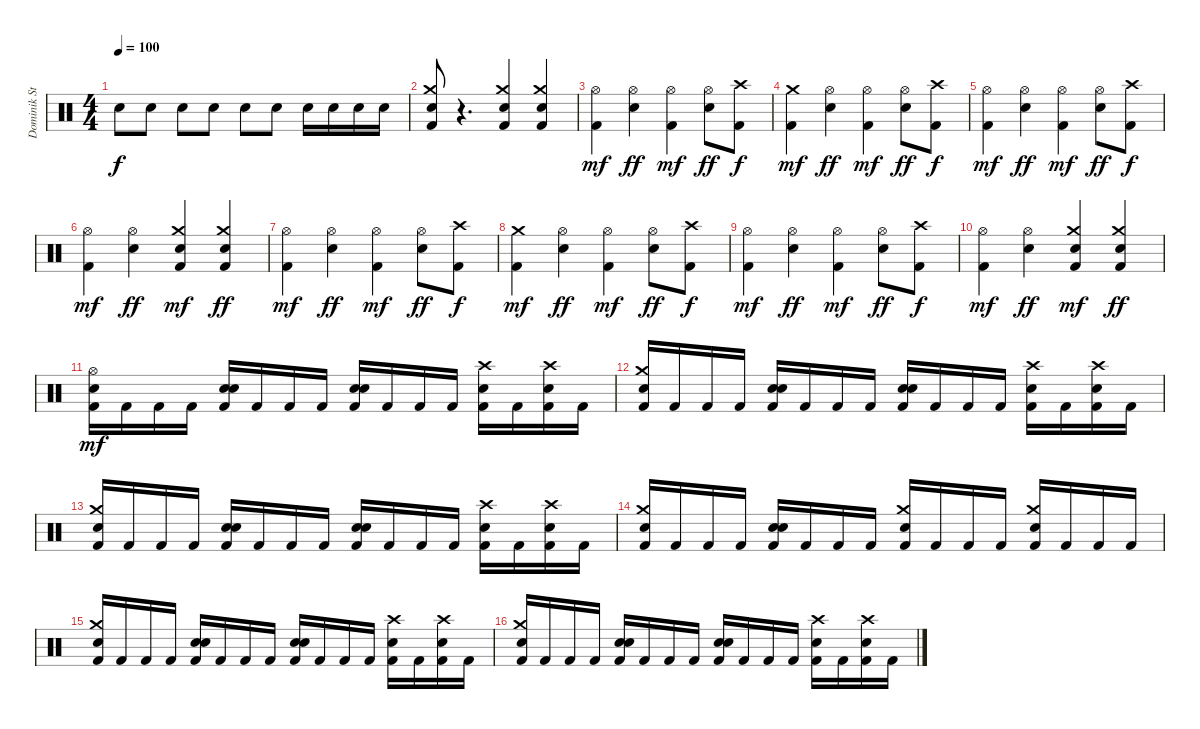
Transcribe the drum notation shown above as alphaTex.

\track ("Dominik Storch" "Dominik St") {instrument percussion}
\staff {score}
\articulation defaults
\ts (4 4)
\tempo 100
\clef neutral
\ks c "Electric Snare (hit)".8{dy f} "Electric Snare (hit)".8 "Electric Snare (hit)".8 "Electric Snare (hit)".8 "Electric Snare (hit)".8 "Electric Snare (hit)".8 "Electric Snare (hit)".16 "Electric Snare (hit)".16 "Electric Snare (hit)".16 "Electric Snare (hit)".16
|
("Crash medium (hit)" "Electric Snare (hit)" "Kick (hit) 2").8 r.4{d} ("Crash medium (hit)" "Electric Snare (hit)" "Kick (hit) 2").4 ("Crash medium (hit)" "Electric Snare (hit)" "Kick (hit) 2").4 |
("Hi-Hat (open)" "Kick (hit) 2").4{dy mf} ("Hi-Hat (open)" "Electric Snare (hit)").4{dy ff} ("Hi-Hat (open)" "Kick (hit) 2").4{dy mf} ("Hi-Hat (open)" "Electric Snare (hit)").8{dy ff} ("Crash high (hit)" "Kick (hit) 2").8{dy f} |
("Crash medium (hit)" "Kick (hit) 2").4{dy mf} ("Hi-Hat (open)" "Electric Snare (hit)").4{dy ff} ("Hi-Hat (open)" "Kick (hit) 2").4{dy mf} ("Hi-Hat (open)" "Electric Snare (hit)").8{dy ff} ("Crash high (hit)" "Kick (hit) 2").8{dy f} |
("Hi-Hat (open)" "Kick (hit) 2").4{dy mf} ("Hi-Hat (open)" "Electric Snare (hit)").4{dy ff} ("Hi-Hat (open)" "Kick (hit) 2").4{dy mf} ("Hi-Hat (open)" "Electric Snare (hit)").8{dy ff} ("Crash high (hit)" "Kick (hit) 2").8{dy f} |
("Hi-Hat (open)" "Kick (hit) 2").4{dy mf} ("Hi-Hat (open)" "Electric Snare (hit)").4{dy ff} ("Crash medium (hit)" "Electric Snare (hit)" "Kick (hit) 2").4{dy mf} ("Crash medium (hit)" "Electric Snare (hit)" "Kick (hit) 2").4{dy ff} |
("Hi-Hat (open)" "Kick (hit) 2").4{dy mf} ("Hi-Hat (open)" "Electric Snare (hit)").4{dy ff} ("Hi-Hat (open)" "Kick (hit) 2").4{dy mf} ("Hi-Hat (open)" "Electric Snare (hit)").8{dy ff} ("Crash high (hit)" "Kick (hit) 2").8{dy f} |
("Crash medium (hit)" "Kick (hit) 2").4{dy mf} ("Hi-Hat (open)" "Electric Snare (hit)").4{dy ff} ("Hi-Hat (open)" "Kick (hit) 2").4{dy mf} ("Hi-Hat (open)" "Electric Snare (hit)").8{dy ff} ("Crash high (hit)" "Kick (hit) 2").8{dy f} |
("Hi-Hat (open)" "Kick (hit) 2").4{dy mf} ("Hi-Hat (open)" "Electric Snare (hit)").4{dy ff} ("Hi-Hat (open)" "Kick (hit) 2").4{dy mf} ("Hi-Hat (open)" "Electric Snare (hit)").8{dy ff} ("Crash high (hit)" "Kick (hit) 2").8{dy f} |
("Hi-Hat (open)" "Kick (hit) 2").4{dy mf} ("Hi-Hat (open)" "Electric Snare (hit)").4{dy ff} ("Crash medium (hit)" "Electric Snare (hit)" "Kick (hit) 2").4{dy mf} ("Crash medium (hit)" "Electric Snare (hit)" "Kick (hit) 2").4{dy ff} |
("Hi-Hat (open)" "Electric Snare (hit)" "Kick (hit) 2").16{dy mf} "Kick (hit) 2".16 "Kick (hit) 2".16 "Kick (hit) 2".16 ("Electric Snare (hit)" "Electric Snare (hit)" "Kick (hit) 2").16 "Kick (hit) 2".16 "Kick (hit) 2".16 "Kick (hit) 2".16 ("Electric Snare (hit)" "Electric Snare (hit)" "Kick (hit) 2").16 "Kick (hit) 2".16 "Kick (hit) 2".16 "Kick (hit) 2".16 ("Crash high (hit)" "Electric Snare (hit)" "Kick (hit) 2").16 "Kick (hit) 2".16 ("Crash high (hit)" "Electric Snare (hit)" "Kick (hit) 2").16 "Kick (hit) 2".16 |
("Crash medium (hit)" "Electric Snare (hit)" "Kick (hit) 2").16 "Kick (hit) 2".16 "Kick (hit) 2".16 "Kick (hit) 2".16 ("Electric Snare (hit)" "Electric Snare (hit)" "Kick (hit) 2").16 "Kick (hit) 2".16 "Kick (hit) 2".16 "Kick (hit) 2".16 ("Electric Snare (hit)" "Electric Snare (hit)" "Kick (hit) 2").16 "Kick (hit) 2".16 "Kick (hit) 2".16 "Kick (hit) 2".16 ("Crash high (hit)" "Electric Snare (hit)" "Kick (hit) 2").16 "Kick (hit) 2".16 ("Crash high (hit)" "Electric Snare (hit)" "Kick (hit) 2").16 "Kick (hit) 2".16 |
("Crash medium (hit)" "Electric Snare (hit)" "Kick (hit) 2").16 "Kick (hit) 2".16 "Kick (hit) 2".16 "Kick (hit) 2".16 ("Electric Snare (hit)" "Electric Snare (hit)" "Kick (hit) 2").16 "Kick (hit) 2".16 "Kick (hit) 2".16 "Kick (hit) 2".16 ("Electric Snare (hit)" "Electric Snare (hit)" "Kick (hit) 2").16 "Kick (hit) 2".16 "Kick (hit) 2".16 "Kick (hit) 2".16 ("Crash high (hit)" "Electric Snare (hit)" "Kick (hit) 2").16 "Kick (hit) 2".16 ("Crash high (hit)" "Electric Snare (hit)" "Kick (hit) 2").16 "Kick (hit) 2".16 |
("Crash medium (hit)" "Electric Snare (hit)" "Kick (hit) 2").16 "Kick (hit) 2".16 "Kick (hit) 2".16 "Kick (hit) 2".16 ("Electric Snare (hit)" "Electric Snare (hit)" "Kick (hit) 2").16 "Kick (hit) 2".16 "Kick (hit) 2".16 "Kick (hit) 2".16 ("Crash medium (hit)" "Electric Snare (hit)" "Kick (hit) 2").16 "Kick (hit) 2".16 "Kick (hit) 2".16 "Kick (hit) 2".16 ("Crash medium (hit)" "Electric Snare (hit)" "Kick (hit) 2").16 "Kick (hit) 2".16 "Kick (hit) 2".16 "Kick (hit) 2".16 |
("Crash medium (hit)" "Electric Snare (hit)" "Kick (hit) 2").16 "Kick (hit) 2".16 "Kick (hit) 2".16 "Kick (hit) 2".16 ("Electric Snare (hit)" "Electric Snare (hit)" "Kick (hit) 2").16 "Kick (hit) 2".16 "Kick (hit) 2".16 "Kick (hit) 2".16 ("Electric Snare (hit)" "Electric Snare (hit)" "Kick (hit) 2").16 "Kick (hit) 2".16 "Kick (hit) 2".16 "Kick (hit) 2".16 ("Crash high (hit)" "Electric Snare (hit)" "Kick (hit) 2").16 "Kick (hit) 2".16 ("Crash high (hit)" "Electric Snare (hit)" "Kick (hit) 2").16 "Kick (hit) 2".16 |
("Crash medium (hit)" "Electric Snare (hit)" "Kick (hit) 2").16 "Kick (hit) 2".16 "Kick (hit) 2".16 "Kick (hit) 2".16 ("Electric Snare (hit)" "Electric Snare (hit)" "Kick (hit) 2").16 "Kick (hit) 2".16 "Kick (hit) 2".16 "Kick (hit) 2".16 ("Electric Snare (hit)" "Electric Snare (hit)" "Kick (hit) 2").16 "Kick (hit) 2".16 "Kick (hit) 2".16 "Kick (hit) 2".16 ("Crash high (hit)" "Electric Snare (hit)" "Kick (hit) 2").16 "Kick (hit) 2".16 ("Crash high (hit)" "Electric Snare (hit)" "Kick (hit) 2").16 "Kick (hit) 2".16
